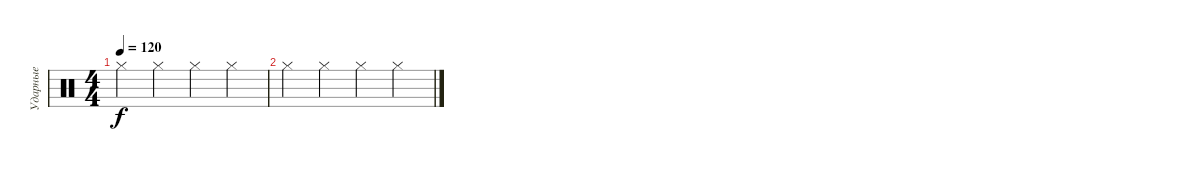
\track ("Ударные" "Ударные") {instrument percussion}
\staff {score}
\articulation defaults
\ts (4 4)
\tempo 120
\clef neutral
\ks c "Hi-Hat (closed)".4{dy f} "Hi-Hat (closed)".4 "Hi-Hat (closed)".4 "Hi-Hat (closed)".4
|
"Hi-Hat (closed)".4 "Hi-Hat (closed)".4 "Hi-Hat (closed)".4 "Hi-Hat (closed)".4
